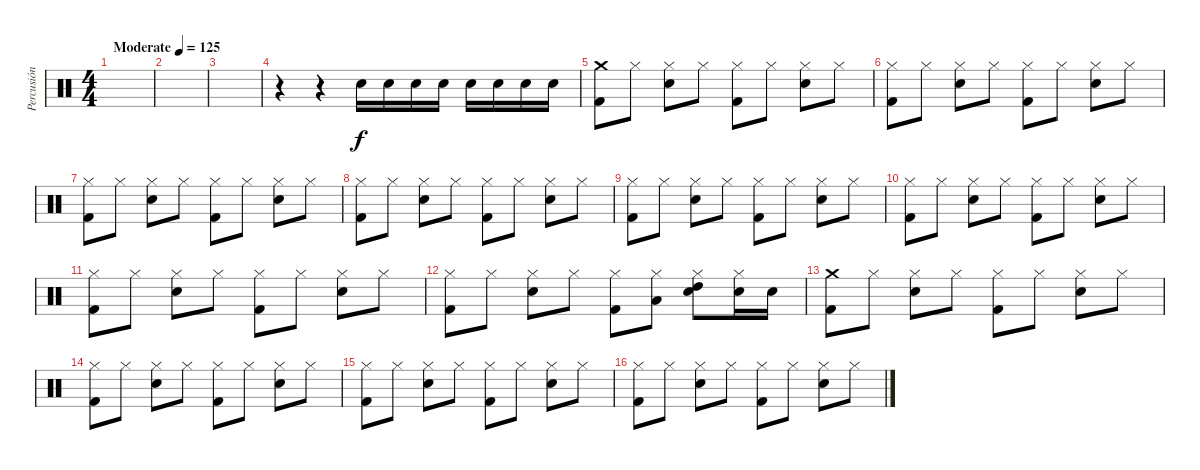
\track ("Percusión" "Percusión") {instrument percussion}
\staff {score}
\articulation defaults
\ts (4 4)
\tempo (125 "Moderate")
\clef neutral
\ks c
|
|
|
r.4 r.4 "Snare (hit) 2".16 "Snare (hit) 2".16 "Snare (hit) 2".16 "Snare (hit) 2".16 "Snare (hit) 2".16 "Snare (hit) 2".16 "Snare (hit) 2".16 "Snare (hit) 2".16 |
("Crash medium (hit)" "Kick (hit) 2").8 "Hi-Hat (closed)".8 ("Hi-Hat (closed)" "Snare (hit) 2").8 "Hi-Hat (closed)".8 ("Hi-Hat (closed)" "Kick (hit) 2").8 "Hi-Hat (closed)".8 ("Hi-Hat (closed)" "Snare (hit) 2").8 "Hi-Hat (closed)".8 |
("Hi-Hat (closed)" "Kick (hit) 2").8 "Hi-Hat (closed)".8 ("Hi-Hat (closed)" "Snare (hit) 2").8 "Hi-Hat (closed)".8 ("Hi-Hat (closed)" "Kick (hit) 2").8 "Hi-Hat (closed)".8 ("Hi-Hat (closed)" "Snare (hit) 2").8 "Hi-Hat (closed)".8 |
("Hi-Hat (closed)" "Kick (hit) 2").8 "Hi-Hat (closed)".8 ("Hi-Hat (closed)" "Snare (hit) 2").8 "Hi-Hat (closed)".8 ("Hi-Hat (closed)" "Kick (hit) 2").8 "Hi-Hat (closed)".8 ("Hi-Hat (closed)" "Snare (hit) 2").8 "Hi-Hat (closed)".8 |
("Hi-Hat (closed)" "Kick (hit) 2").8 "Hi-Hat (closed)".8 ("Hi-Hat (closed)" "Snare (hit) 2").8 "Hi-Hat (closed)".8 ("Hi-Hat (closed)" "Kick (hit) 2").8 "Hi-Hat (closed)".8 ("Hi-Hat (closed)" "Snare (hit) 2").8 "Hi-Hat (closed)".8 |
("Hi-Hat (closed)" "Kick (hit) 2").8 "Hi-Hat (closed)".8 ("Hi-Hat (closed)" "Snare (hit) 2").8 "Hi-Hat (closed)".8 ("Hi-Hat (closed)" "Kick (hit) 2").8 "Hi-Hat (closed)".8 ("Hi-Hat (closed)" "Snare (hit) 2").8 "Hi-Hat (closed)".8 |
("Hi-Hat (closed)" "Kick (hit) 2").8 "Hi-Hat (closed)".8 ("Hi-Hat (closed)" "Snare (hit) 2").8 "Hi-Hat (closed)".8 ("Hi-Hat (closed)" "Kick (hit) 2").8 "Hi-Hat (closed)".8 ("Hi-Hat (closed)" "Snare (hit) 2").8 "Hi-Hat (closed)".8 |
("Hi-Hat (closed)" "Kick (hit) 2").8 "Hi-Hat (closed)".8 ("Hi-Hat (closed)" "Snare (hit) 2").8 "Hi-Hat (closed)".8 ("Hi-Hat (closed)" "Kick (hit) 2").8 "Hi-Hat (closed)".8 ("Hi-Hat (closed)" "Snare (hit) 2").8 "Hi-Hat (closed)".8 |
("Hi-Hat (closed)" "Kick (hit) 2").8 "Hi-Hat (closed)".8 ("Hi-Hat (closed)" "Snare (hit) 2").8 "Hi-Hat (closed)".8 ("Hi-Hat (closed)" "Kick (hit) 2").8 ("Hi-Hat (closed)" "Low Tom (hit)").8 ("Hi-Hat (closed)" "High Tom (hit)" "Snare (hit) 2").8 ("Hi-Hat (closed)" "Snare (hit) 2").16 "Snare (hit) 2".16 |
("Crash medium (hit)" "Kick (hit) 2").8 "Hi-Hat (closed)".8 ("Hi-Hat (closed)" "Snare (hit) 2").8 "Hi-Hat (closed)".8 ("Hi-Hat (closed)" "Kick (hit) 2").8 "Hi-Hat (closed)".8 ("Hi-Hat (closed)" "Snare (hit) 2").8 "Hi-Hat (closed)".8 |
("Hi-Hat (closed)" "Kick (hit) 2").8 "Hi-Hat (closed)".8 ("Hi-Hat (closed)" "Snare (hit) 2").8 "Hi-Hat (closed)".8 ("Hi-Hat (closed)" "Kick (hit) 2").8 "Hi-Hat (closed)".8 ("Hi-Hat (closed)" "Snare (hit) 2").8 "Hi-Hat (closed)".8 |
("Hi-Hat (closed)" "Kick (hit) 2").8 "Hi-Hat (closed)".8 ("Hi-Hat (closed)" "Snare (hit) 2").8 "Hi-Hat (closed)".8 ("Hi-Hat (closed)" "Kick (hit) 2").8 "Hi-Hat (closed)".8 ("Hi-Hat (closed)" "Snare (hit) 2").8 "Hi-Hat (closed)".8 |
("Hi-Hat (closed)" "Kick (hit) 2").8 "Hi-Hat (closed)".8 ("Hi-Hat (closed)" "Snare (hit) 2").8 "Hi-Hat (closed)".8 ("Hi-Hat (closed)" "Kick (hit) 2").8 "Hi-Hat (closed)".8 ("Hi-Hat (closed)" "Snare (hit) 2").8 "Hi-Hat (closed)".8
